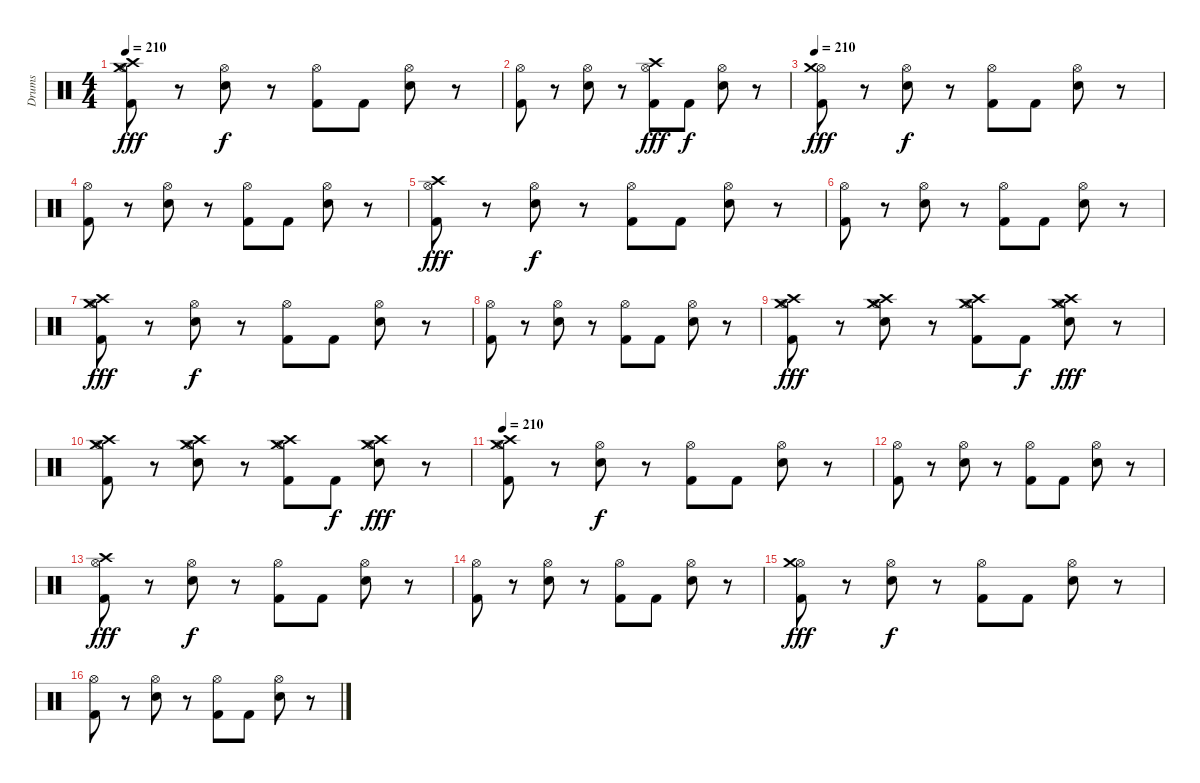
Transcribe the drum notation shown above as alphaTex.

\track ("Drums" "Drums") {instrument percussion}
\staff {score}
\articulation defaults
\ts (4 4)
\tempo 210
\clef neutral
\ks c
("Hi-Hat (open)" "Crash high (hit)" "Crash medium (hit)" "Kick (hit) 2").8{dy fff} r.8 ("Hi-Hat (open)" "Electric Snare (hit)").8{dy f} r.8 ("Hi-Hat (open)" "Kick (hit) 2").8 "Kick (hit) 2".8 ("Hi-Hat (open)" "Electric Snare (hit)").8 r.8 |
("Hi-Hat (open)" "Kick (hit) 2").8 r.8 ("Hi-Hat (open)" "Electric Snare (hit)").8 r.8 ("Hi-Hat (open)" "Crash high (hit)" "Kick (hit) 2").8{dy fff} "Kick (hit) 2".8{dy f} ("Hi-Hat (open)" "Electric Snare (hit)").8 r.8 |
\tempo 210
("Hi-Hat (open)" "Crash medium (hit)" "Kick (hit) 2").8{dy fff} r.8 ("Hi-Hat (open)" "Electric Snare (hit)").8{dy f} r.8 ("Hi-Hat (open)" "Kick (hit) 2").8 "Kick (hit) 2".8 ("Hi-Hat (open)" "Electric Snare (hit)").8 r.8 |
("Hi-Hat (open)" "Kick (hit) 2").8 r.8 ("Hi-Hat (open)" "Electric Snare (hit)").8 r.8 ("Hi-Hat (open)" "Kick (hit) 2").8 "Kick (hit) 2".8 ("Hi-Hat (open)" "Electric Snare (hit)").8 r.8 |
("Hi-Hat (open)" "Crash high (hit)" "Kick (hit) 2").8{dy fff} r.8 ("Hi-Hat (open)" "Electric Snare (hit)").8{dy f} r.8 ("Hi-Hat (open)" "Kick (hit) 2").8 "Kick (hit) 2".8 ("Hi-Hat (open)" "Electric Snare (hit)").8 r.8 |
("Hi-Hat (open)" "Kick (hit) 2").8 r.8 ("Hi-Hat (open)" "Electric Snare (hit)").8 r.8 ("Hi-Hat (open)" "Kick (hit) 2").8 "Kick (hit) 2".8 ("Hi-Hat (open)" "Electric Snare (hit)").8 r.8 |
("Hi-Hat (open)" "Crash high (hit)" "Crash medium (hit)" "Kick (hit) 2").8{dy fff} r.8 ("Hi-Hat (open)" "Electric Snare (hit)").8{dy f} r.8 ("Hi-Hat (open)" "Kick (hit) 2").8 "Kick (hit) 2".8 ("Hi-Hat (open)" "Electric Snare (hit)").8 r.8 |
("Hi-Hat (open)" "Kick (hit) 2").8 r.8 ("Hi-Hat (open)" "Electric Snare (hit)").8 r.8 ("Hi-Hat (open)" "Kick (hit) 2").8 "Kick (hit) 2".8 ("Hi-Hat (open)" "Electric Snare (hit)").8 r.8 |
("Hi-Hat (open)" "Crash medium (hit)" "Crash high (hit)" "Kick (hit) 2").8{dy fff} r.8 ("Hi-Hat (open)" "Crash medium (hit)" "Crash high (hit)" "Electric Snare (hit)").8 r.8 ("Hi-Hat (open)" "Crash medium (hit)" "Crash high (hit)" "Kick (hit) 2").8 "Kick (hit) 2".8{dy f} ("Hi-Hat (open)" "Crash medium (hit)" "Crash high (hit)" "Electric Snare (hit)").8{dy fff} r.8 |
("Hi-Hat (open)" "Crash medium (hit)" "Crash high (hit)" "Kick (hit) 2").8 r.8 ("Hi-Hat (open)" "Crash medium (hit)" "Crash high (hit)" "Electric Snare (hit)").8 r.8 ("Hi-Hat (open)" "Crash medium (hit)" "Crash high (hit)" "Kick (hit) 2").8 "Kick (hit) 2".8{dy f} ("Hi-Hat (open)" "Crash medium (hit)" "Crash high (hit)" "Electric Snare (hit)").8{dy fff} r.8 |
\tempo 210
("Hi-Hat (open)" "Crash medium (hit)" "Crash high (hit)" "Kick (hit) 2").8 r.8 ("Hi-Hat (open)" "Electric Snare (hit)").8{dy f} r.8 ("Hi-Hat (open)" "Kick (hit) 2").8 "Kick (hit) 2".8 ("Hi-Hat (open)" "Electric Snare (hit)").8 r.8 |
("Hi-Hat (open)" "Kick (hit) 2").8 r.8 ("Hi-Hat (open)" "Electric Snare (hit)").8 r.8 ("Hi-Hat (open)" "Kick (hit) 2").8 "Kick (hit) 2".8 ("Hi-Hat (open)" "Electric Snare (hit)").8 r.8 |
("Hi-Hat (open)" "Crash high (hit)" "Kick (hit) 2").8{dy fff} r.8 ("Hi-Hat (open)" "Electric Snare (hit)").8{dy f} r.8 ("Hi-Hat (open)" "Kick (hit) 2").8 "Kick (hit) 2".8 ("Hi-Hat (open)" "Electric Snare (hit)").8 r.8 |
("Hi-Hat (open)" "Kick (hit) 2").8 r.8 ("Hi-Hat (open)" "Electric Snare (hit)").8 r.8 ("Hi-Hat (open)" "Kick (hit) 2").8 "Kick (hit) 2".8 ("Hi-Hat (open)" "Electric Snare (hit)").8 r.8 |
("Hi-Hat (open)" "Crash medium (hit)" "Kick (hit) 2").8{dy fff} r.8 ("Hi-Hat (open)" "Electric Snare (hit)").8{dy f} r.8 ("Hi-Hat (open)" "Kick (hit) 2").8 "Kick (hit) 2".8 ("Hi-Hat (open)" "Electric Snare (hit)").8 r.8 |
("Hi-Hat (open)" "Kick (hit) 2").8 r.8 ("Hi-Hat (open)" "Electric Snare (hit)").8 r.8 ("Hi-Hat (open)" "Kick (hit) 2").8 "Kick (hit) 2".8 ("Hi-Hat (open)" "Electric Snare (hit)").8 r.8
